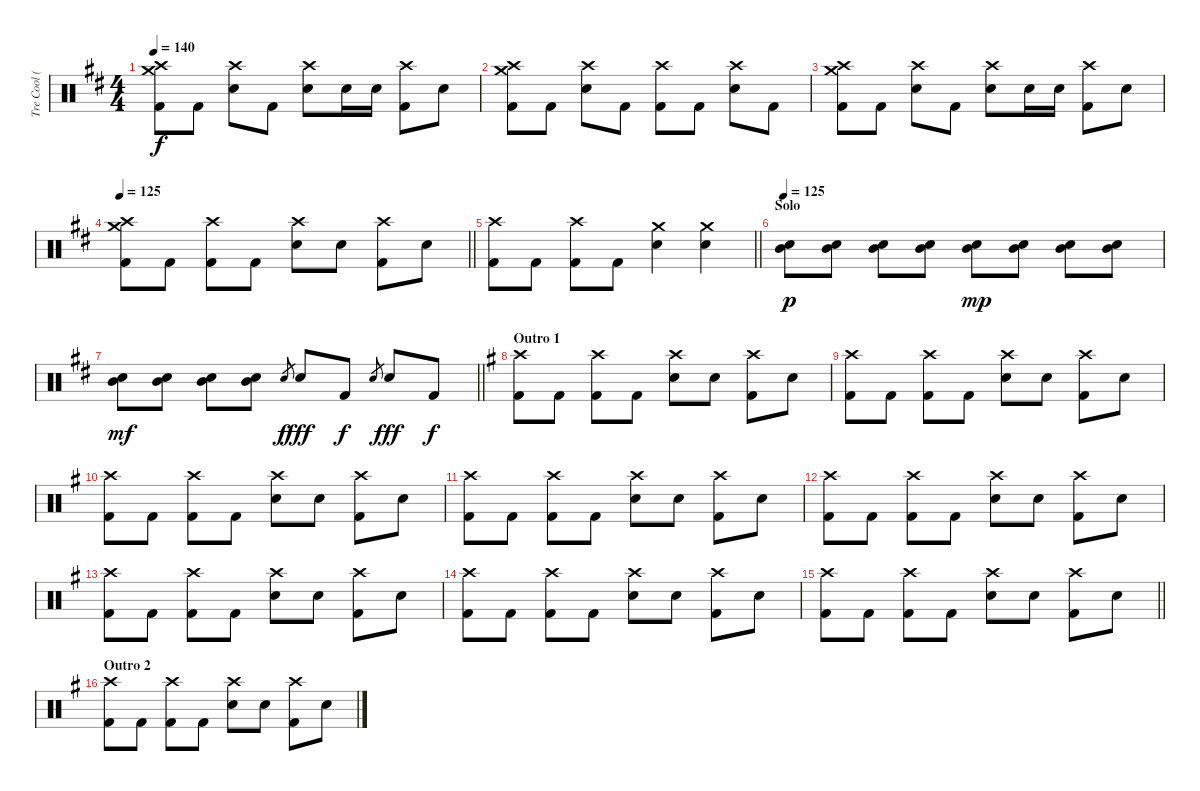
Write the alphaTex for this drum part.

\track ("Tre Cool (Drums)" "Tre Cool (") {instrument percussion}
\staff {score}
\articulation defaults
\ts (4 4)
\tempo 140
\clef neutral
\ks d
("Crash medium (hit)" "Crash high (hit)" "Kick (hit) 2").8{dy f} "Kick (hit) 2".8 ("Crash high (hit)" "Electric Snare (hit)").8 "Kick (hit) 2".8 ("Crash high (hit)" "Electric Snare (hit)").8 "Electric Snare (hit)".16 "Electric Snare (hit)".16 ("Crash high (hit)" "Kick (hit) 2").8 "Electric Snare (hit)".8 |
("Crash medium (hit)" "Crash high (hit)" "Kick (hit) 2").8 "Kick (hit) 2".8 ("Crash high (hit)" "Electric Snare (hit)").8 "Kick (hit) 2".8 ("Crash high (hit)" "Kick (hit) 2").8 "Kick (hit) 2".8 ("Crash high (hit)" "Electric Snare (hit)").8 "Kick (hit) 2".8 |
("Crash medium (hit)" "Crash high (hit)" "Kick (hit) 2").8 "Kick (hit) 2".8 ("Crash high (hit)" "Electric Snare (hit)").8 "Kick (hit) 2".8 ("Crash high (hit)" "Electric Snare (hit)").8 "Electric Snare (hit)".16 "Electric Snare (hit)".16 ("Crash high (hit)" "Kick (hit) 2").8 "Electric Snare (hit)".8 |
\tempo 125
\barLineRight lightlight
("Crash high (hit)" "Crash medium (hit)" "Kick (hit) 2").8 "Kick (hit) 2".8 ("Crash high (hit)" "Kick (hit) 2").8 "Kick (hit) 2".8 ("Crash high (hit)" "Electric Snare (hit)").8 "Electric Snare (hit)".8 ("Crash high (hit)" "Kick (hit) 2").8 "Electric Snare (hit)".8 |
\barLineRight lightlight
("Crash high (hit)" "Kick (hit) 2").8 "Kick (hit) 2".8 ("Crash high (hit)" "Kick (hit) 2").8 "Kick (hit) 2".8 ("Crash medium (hit)" "Electric Snare (hit)").4 ("Crash medium (hit)" "Electric Snare (hit)").4 |
\section ("" "Solo")
\tempo 125
("Mid Tom (hit)" "Electric Snare (hit)").8{dy p} ("Mid Tom (hit)" "Electric Snare (hit)").8 ("Mid Tom (hit)" "Electric Snare (hit)").8 ("Mid Tom (hit)" "Electric Snare (hit)").8 ("Mid Tom (hit)" "Electric Snare (hit)").8{dy mp} ("Mid Tom (hit)" "Electric Snare (hit)").8 ("Mid Tom (hit)" "Electric Snare (hit)").8 ("Mid Tom (hit)" "Electric Snare (hit)").8 |
\barLineRight lightlight
("Mid Tom (hit)" "Electric Snare (hit)").8{dy mf} ("Mid Tom (hit)" "Electric Snare (hit)").8 ("Mid Tom (hit)" "Electric Snare (hit)").8 ("Mid Tom (hit)" "Electric Snare (hit)").8 "Electric Snare (hit)"{h}.8{gr dy f} "Electric Snare (hit)".8{dy fff} "Kick (hit) 2".8{dy f} "Electric Snare (hit)"{h}.8{gr} "Electric Snare (hit)".8{dy fff} "Kick (hit) 2".8{dy f} |
\section ("" "Outro 1")
\ks g
("Crash high (hit)" "Kick (hit) 2").8 "Kick (hit) 2".8 ("Crash high (hit)" "Kick (hit) 2").8 "Kick (hit) 2".8 ("Crash high (hit)" "Electric Snare (hit)").8 "Electric Snare (hit)".8 ("Crash high (hit)" "Kick (hit) 2").8 "Electric Snare (hit)".8 |
("Crash high (hit)" "Kick (hit) 2").8 "Kick (hit) 2".8 ("Crash high (hit)" "Kick (hit) 2").8 "Kick (hit) 2".8 ("Crash high (hit)" "Electric Snare (hit)").8 "Electric Snare (hit)".8 ("Crash high (hit)" "Kick (hit) 2").8 "Electric Snare (hit)".8 |
("Crash high (hit)" "Kick (hit) 2").8 "Kick (hit) 2".8 ("Crash high (hit)" "Kick (hit) 2").8 "Kick (hit) 2".8 ("Crash high (hit)" "Electric Snare (hit)").8 "Electric Snare (hit)".8 ("Crash high (hit)" "Kick (hit) 2").8 "Electric Snare (hit)".8 |
("Crash high (hit)" "Kick (hit) 2").8 "Kick (hit) 2".8 ("Crash high (hit)" "Kick (hit) 2").8 "Kick (hit) 2".8 ("Crash high (hit)" "Electric Snare (hit)").8 "Electric Snare (hit)".8 ("Crash high (hit)" "Kick (hit) 2").8 "Electric Snare (hit)".8 |
("Crash high (hit)" "Kick (hit) 2").8 "Kick (hit) 2".8 ("Crash high (hit)" "Kick (hit) 2").8 "Kick (hit) 2".8 ("Crash high (hit)" "Electric Snare (hit)").8 "Electric Snare (hit)".8 ("Crash high (hit)" "Kick (hit) 2").8 "Electric Snare (hit)".8 |
("Crash high (hit)" "Kick (hit) 2").8 "Kick (hit) 2".8 ("Crash high (hit)" "Kick (hit) 2").8 "Kick (hit) 2".8 ("Crash high (hit)" "Electric Snare (hit)").8 "Electric Snare (hit)".8 ("Crash high (hit)" "Kick (hit) 2").8 "Electric Snare (hit)".8 |
("Crash high (hit)" "Kick (hit) 2").8 "Kick (hit) 2".8 ("Crash high (hit)" "Kick (hit) 2").8 "Kick (hit) 2".8 ("Crash high (hit)" "Electric Snare (hit)").8 "Electric Snare (hit)".8 ("Crash high (hit)" "Kick (hit) 2").8 "Electric Snare (hit)".8 |
\barLineRight lightlight
("Crash high (hit)" "Kick (hit) 2").8 "Kick (hit) 2".8 ("Crash high (hit)" "Kick (hit) 2").8 "Kick (hit) 2".8 ("Crash high (hit)" "Electric Snare (hit)").8 "Electric Snare (hit)".8 ("Crash high (hit)" "Kick (hit) 2").8 "Electric Snare (hit)".8 |
\section ("" "Outro 2")
("Crash high (hit)" "Kick (hit) 2").8 "Kick (hit) 2".8 ("Crash high (hit)" "Kick (hit) 2").8 "Kick (hit) 2".8 ("Crash high (hit)" "Electric Snare (hit)").8 "Electric Snare (hit)".8 ("Crash high (hit)" "Kick (hit) 2").8 "Electric Snare (hit)".8
